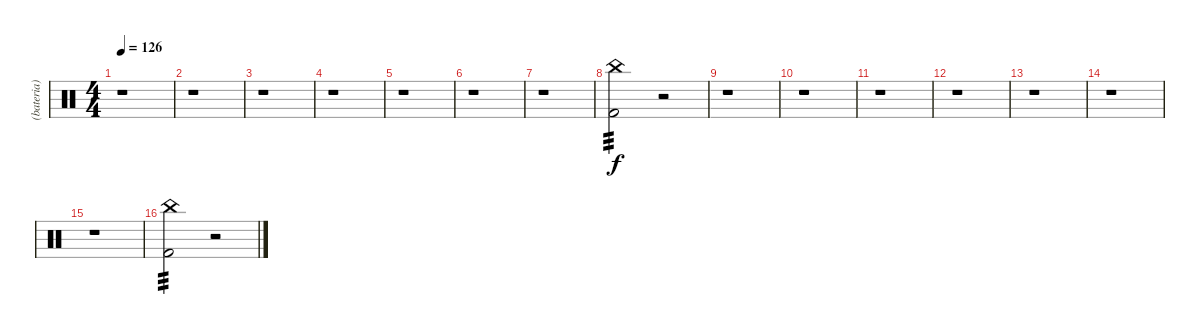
\track ("(bateria)" "(bateria)") {instrument percussion}
\staff {score}
\articulation defaults
\ts (4 4)
\tempo 126
\clef neutral
\ks c
r.1{dy f} |
r.1 |
r.1 |
r.1 |
r.1 |
r.1 |
r.1 |
("Kick (hit) 2" "China (hit)").2{tp 3 volume 0} r.2{volume 13} |
r.1 |
r.1 |
r.1 |
r.1 |
r.1 |
r.1 |
r.1 |
("Kick (hit) 2" "China (hit)").2{tp 3 volume 0} r.2{volume 13}
